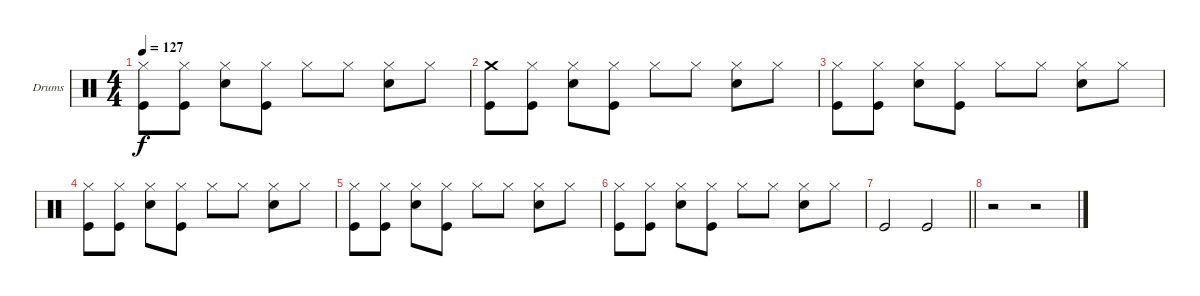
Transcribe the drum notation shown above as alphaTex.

\bracketExtendMode groupsimilarinstruments
\firstSystemTrackNameOrientation horizontal
\otherSystemsTrackNameOrientation horizontal
\track ("Drumkit" "Drums") {instrument percussion}
\staff {score}
\articulation defaults
\ts (4 4)
\tempo 127
\clef neutral
\ks c
("Hi-Hat (closed)" "Kick (hit)").8{dy f} ("Hi-Hat (closed)" "Kick (hit)").8 ("Hi-Hat (closed)" "Snare (hit) 2").8 ("Hi-Hat (closed)" "Kick (hit)").8 "Hi-Hat (closed)".8 "Hi-Hat (closed)".8 ("Hi-Hat (closed)" "Snare (hit) 2").8 "Hi-Hat (closed)".8 |
("Crash medium (hit)" "Kick (hit)").8 ("Hi-Hat (closed)" "Kick (hit)").8 ("Hi-Hat (closed)" "Snare (hit) 2").8 ("Hi-Hat (closed)" "Kick (hit)").8 "Hi-Hat (closed)".8 "Hi-Hat (closed)".8 ("Hi-Hat (closed)" "Snare (hit) 2").8 "Hi-Hat (closed)".8 |
("Hi-Hat (closed)" "Kick (hit)").8 ("Hi-Hat (closed)" "Kick (hit)").8 ("Hi-Hat (closed)" "Snare (hit) 2").8 ("Hi-Hat (closed)" "Kick (hit)").8 "Hi-Hat (closed)".8 "Hi-Hat (closed)".8 ("Hi-Hat (closed)" "Snare (hit) 2").8 "Hi-Hat (closed)".8 |
("Hi-Hat (closed)" "Kick (hit)").8 ("Hi-Hat (closed)" "Kick (hit)").8 ("Hi-Hat (closed)" "Snare (hit) 2").8 ("Hi-Hat (closed)" "Kick (hit)").8 "Hi-Hat (closed)".8 "Hi-Hat (closed)".8 ("Hi-Hat (closed)" "Snare (hit) 2").8 "Hi-Hat (closed)".8 |
("Hi-Hat (closed)" "Kick (hit)").8 ("Hi-Hat (closed)" "Kick (hit)").8 ("Hi-Hat (closed)" "Snare (hit) 2").8 ("Hi-Hat (closed)" "Kick (hit)").8 "Hi-Hat (closed)".8 "Hi-Hat (closed)".8 ("Hi-Hat (closed)" "Snare (hit) 2").8 "Hi-Hat (closed)".8 |
("Hi-Hat (closed)" "Kick (hit)").8 ("Hi-Hat (closed)" "Kick (hit)").8 ("Hi-Hat (closed)" "Snare (hit) 2").8 ("Hi-Hat (closed)" "Kick (hit)").8 "Hi-Hat (closed)".8 "Hi-Hat (closed)".8 ("Hi-Hat (closed)" "Snare (hit) 2").8 "Hi-Hat (closed)".8 |
\barLineRight lightlight "Kick (hit)".2 "Kick (hit)".2
|
r.2 r.2
